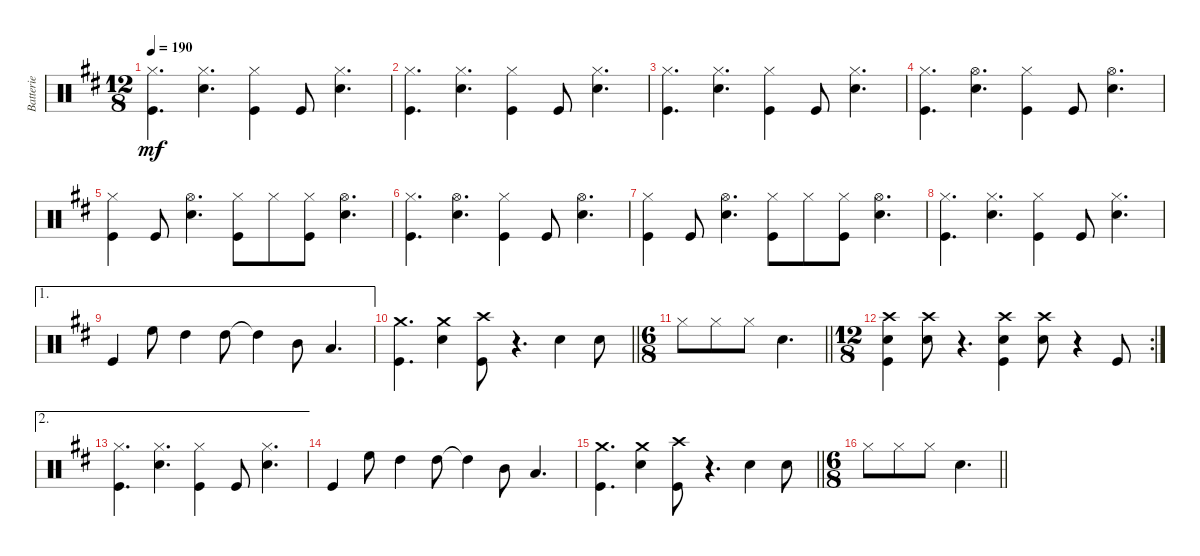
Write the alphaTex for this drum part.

\track ("Batterie" "Batterie") {instrument percussion}
\staff {score}
\articulation defaults
\ts (12 8)
\tempo 190
\clef neutral
\ks d
("Hi-Hat (closed)" "Kick (hit)").4{d dy mf} ("Hi-Hat (closed)" "Snare (hit) 2").4{d} ("Hi-Hat (closed)" "Kick (hit)").4 "Kick (hit)".8 ("Hi-Hat (closed)" "Snare (hit) 2").4{d} |
("Hi-Hat (closed)" "Kick (hit)").4{d} ("Hi-Hat (closed)" "Snare (hit) 2").4{d} ("Hi-Hat (closed)" "Kick (hit)").4 "Kick (hit)".8 ("Hi-Hat (closed)" "Snare (hit) 2").4{d} |
("Hi-Hat (closed)" "Kick (hit)").4{d} ("Hi-Hat (closed)" "Snare (hit) 2").4{d} ("Hi-Hat (closed)" "Kick (hit)").4 "Kick (hit)".8 ("Hi-Hat (closed)" "Snare (hit) 2").4{d} |
("Hi-Hat (closed)" "Kick (hit)").4{d} ("Hi-Hat (open)" "Snare (hit) 2").4{d} ("Hi-Hat (closed)" "Kick (hit)").4 "Kick (hit)".8 ("Hi-Hat (open)" "Snare (hit) 2").4{d} |
("Hi-Hat (closed)" "Kick (hit)").4 "Kick (hit)".8 ("Hi-Hat (open)" "Snare (hit) 2").4{d} ("Hi-Hat (closed)" "Kick (hit)").8 "Hi-Hat (closed)".8 ("Hi-Hat (closed)" "Kick (hit)").8 ("Hi-Hat (open)" "Snare (hit) 2").4{d} |
("Hi-Hat (closed)" "Kick (hit)").4{d} ("Hi-Hat (open)" "Snare (hit) 2").4{d} ("Hi-Hat (closed)" "Kick (hit)").4 "Kick (hit)".8 ("Hi-Hat (open)" "Snare (hit) 2").4{d} |
("Hi-Hat (closed)" "Kick (hit)").4 "Kick (hit)".8 ("Hi-Hat (open)" "Snare (hit) 2").4{d} ("Hi-Hat (closed)" "Kick (hit)").8 "Hi-Hat (closed)".8 ("Hi-Hat (closed)" "Kick (hit)").8 ("Hi-Hat (open)" "Snare (hit) 2").4{d} |
("Hi-Hat (closed)" "Kick (hit)").4{d} ("Hi-Hat (closed)" "Snare (hit) 2").4{d} ("Hi-Hat (closed)" "Kick (hit)").4 "Kick (hit)".8 ("Hi-Hat (closed)" "Snare (hit) 2").4{d} |
\ae 1 "Kick (hit)".4 "High Floor Tom (hit)".8 "High Tom (hit)".4 "High Tom (hit)".8 "High Tom (hit)"{t}.4 "Mid Tom (hit)".8 "Low Tom (hit)".4{d}
|
\barLineRight lightlight
("Crash medium (hit)" "Kick (hit)").4{d} ("Crash medium (hit)" "Snare (hit) 2").4 ("Crash high (hit)" "Kick (hit)").8 r.4{d} "Snare (hit) 2".4 "Snare (hit) 2".8 |
\ts (6 8)
\barLineRight lightlight "Hi-Hat (closed)".8 "Hi-Hat (closed)".8 "Hi-Hat (closed)".8 "Snare (hit) 2".4{d}
|
\rc 2
\ts (12 8)
("Crash high (hit)" "Snare (hit) 2" "Kick (hit)").4 ("Crash high (hit)" "Snare (hit) 2").8 r.4{d} ("Crash high (hit)" "Snare (hit) 2" "Kick (hit)").4 ("Crash high (hit)" "Snare (hit) 2").8 r.4 "Kick (hit)".8 |
\ae 2
("Hi-Hat (closed)" "Kick (hit)").4{d} ("Hi-Hat (closed)" "Snare (hit) 2").4{d} ("Hi-Hat (closed)" "Kick (hit)").4 "Kick (hit)".8 ("Hi-Hat (closed)" "Snare (hit) 2").4{d} |
"Kick (hit)".4 "High Floor Tom (hit)".8 "High Tom (hit)".4 "High Tom (hit)".8 "High Tom (hit)"{t}.4 "Mid Tom (hit)".8 "Low Tom (hit)".4{d} |
\barLineRight lightlight
("Crash medium (hit)" "Kick (hit)").4{d} ("Crash medium (hit)" "Snare (hit) 2").4 ("Crash high (hit)" "Kick (hit)").8 r.4{d} "Snare (hit) 2".4 "Snare (hit) 2".8 |
\ts (6 8)
\barLineRight lightlight "Hi-Hat (closed)".8 "Hi-Hat (closed)".8 "Hi-Hat (closed)".8 "Snare (hit) 2".4{d}
